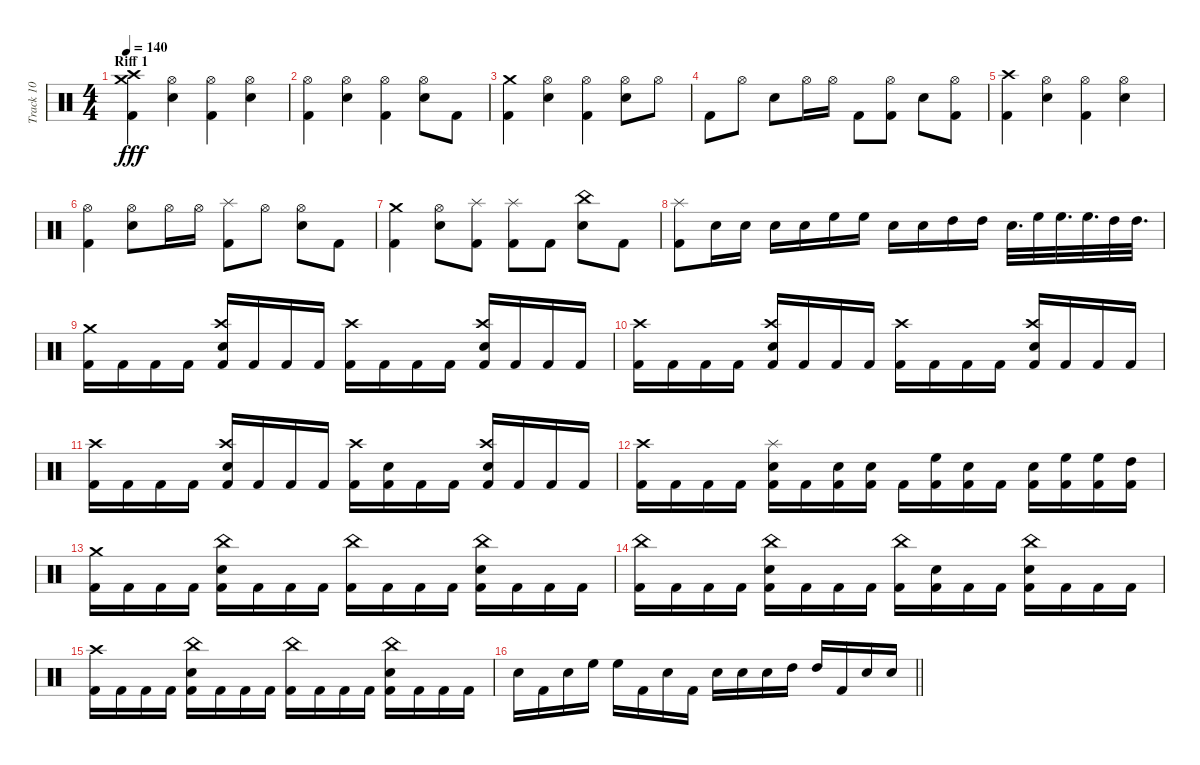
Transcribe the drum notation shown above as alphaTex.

\track ("Track 10" "Track 10") {instrument percussion}
\staff {score}
\articulation defaults
\ts (4 4)
\section ("" "Riff 1")
\tempo 140
\clef neutral
\ks c
("Kick (hit) 2" "Crash medium (hit)" "Crash high (hit)").4{dy fff} ("Hi-Hat (open)" "Snare (hit) 2").4 ("Kick (hit) 2" "Hi-Hat (open)").4 ("Hi-Hat (open)" "Snare (hit) 2").4 |
("Kick (hit) 2" "Hi-Hat (open)").4 ("Snare (hit) 2" "Hi-Hat (open)").4 ("Hi-Hat (open)" "Kick (hit) 2").4 ("Snare (hit) 2" "Hi-Hat (open)").8 "Kick (hit) 2".8 |
("Kick (hit) 2" "Crash medium (hit)").4 ("Hi-Hat (open)" "Snare (hit) 2").4 ("Hi-Hat (open)" "Kick (hit) 2").4 ("Snare (hit) 2" "Hi-Hat (open)").8 "Hi-Hat (open)".8 |
"Kick (hit) 2".8 "Hi-Hat (open)".8 "Snare (hit) 2".8 "Hi-Hat (open)".16 "Hi-Hat (open)".16 "Kick (hit) 2".8 ("Kick (hit) 2" "Hi-Hat (open)").8 "Snare (hit) 2".8 ("Hi-Hat (open)" "Kick (hit) 2").8 |
("Kick (hit) 2" "Crash high (hit)").4 ("Hi-Hat (open)" "Snare (hit) 2").4 ("Hi-Hat (open)" "Kick (hit) 2").4 ("Snare (hit) 2" "Hi-Hat (open)").4 |
("Hi-Hat (open)" "Kick (hit) 2").4 ("Hi-Hat (open)" "Snare (hit) 2").8 "Hi-Hat (open)".16 "Hi-Hat (open)".16 ("Kick (hit) 2" "Splash (hit)").8 "Hi-Hat (open)".8 ("Snare (hit) 2" "Hi-Hat (open)").8 "Kick (hit) 2".8 |
("Crash medium (hit)" "Kick (hit) 2").4 ("Hi-Hat (open)" "Snare (hit) 2").8 ("Splash (hit)" "Kick (hit) 2").8 ("Kick (hit) 2" "Splash (hit)").8 "Kick (hit) 2".8 ("Snare (hit) 2" "China (hit)").8 "Kick (hit) 2".8 |
("Splash (hit)" "Kick (hit) 2").8 "Snare (hit) 2".16 "Snare (hit) 2".16 "Snare (hit) 2".16 "Snare (hit) 2".16 "High Floor Tom (hit)".16 "High Floor Tom (hit)".16 "Snare (hit) 2".16 "Snare (hit) 2".16 "High Tom (hit)".16 "High Tom (hit)".16 "Snare (hit) 2".32{d} "High Floor Tom (hit)".32 "High Floor Tom (hit)".32{d} "High Floor Tom (hit)".32{d} "High Tom (hit)".32 "High Tom (hit)".32{d} |
("Kick (hit) 2" "Crash medium (hit)").16 "Kick (hit) 2".16 "Kick (hit) 2".16 "Kick (hit) 2".16 ("Kick (hit) 2" "Snare (hit) 2" "Crash high (hit)").16 "Kick (hit) 2".16 "Kick (hit) 2".16 "Kick (hit) 2".16 ("Kick (hit) 2" "Crash high (hit)").16 "Kick (hit) 2".16 "Kick (hit) 2".16 "Kick (hit) 2".16 ("Crash high (hit)" "Kick (hit) 2" "Snare (hit) 2").16 "Kick (hit) 2".16 "Kick (hit) 2".16 "Kick (hit) 2".16 |
("Crash high (hit)" "Kick (hit) 2").16 "Kick (hit) 2".16 "Kick (hit) 2".16 "Kick (hit) 2".16 ("Kick (hit) 2" "Snare (hit) 2" "Crash high (hit)").16 "Kick (hit) 2".16 "Kick (hit) 2".16 "Kick (hit) 2".16 ("Crash high (hit)" "Kick (hit) 2").16 "Kick (hit) 2".16 "Kick (hit) 2".16 "Kick (hit) 2".16 ("Crash high (hit)" "Kick (hit) 2" "Snare (hit) 2").16 "Kick (hit) 2".16 "Kick (hit) 2".16 "Kick (hit) 2".16 |
("Kick (hit) 2" "Crash high (hit)").16 "Kick (hit) 2".16 "Kick (hit) 2".16 "Kick (hit) 2".16 ("Snare (hit) 2" "Crash high (hit)" "Kick (hit) 2").16 "Kick (hit) 2".16 "Kick (hit) 2".16 "Kick (hit) 2".16 ("Crash high (hit)" "Kick (hit) 2").16 ("Snare (hit) 2" "Kick (hit) 2").16 "Kick (hit) 2".16 "Kick (hit) 2".16 ("Kick (hit) 2" "Snare (hit) 2" "Crash high (hit)").16 "Kick (hit) 2".16 "Kick (hit) 2".16 "Kick (hit) 2".16 |
("Kick (hit) 2" "Crash high (hit)").16 "Kick (hit) 2".16 "Kick (hit) 2".16 "Kick (hit) 2".16 ("Splash (hit)" "Snare (hit) 2" "Kick (hit) 2").16 "Kick (hit) 2".16 ("Kick (hit) 2" "Snare (hit) 2").16 ("Snare (hit) 2" "Kick (hit) 2").16 "Kick (hit) 2".16 ("Kick (hit) 2" "High Floor Tom (hit)").16 ("Snare (hit) 2" "Kick (hit) 2").16 "Kick (hit) 2".16 ("Snare (hit) 2" "Kick (hit) 2").16 ("Kick (hit) 2" "High Floor Tom (hit)").16 ("High Floor Tom (hit)" "Kick (hit) 2").16 ("Kick (hit) 2" "High Tom (hit)").16 |
("Kick (hit) 2" "Crash medium (hit)").16 "Kick (hit) 2".16 "Kick (hit) 2".16 "Kick (hit) 2".16 ("Kick (hit) 2" "China (hit)" "Snare (hit) 2").16 "Kick (hit) 2".16 "Kick (hit) 2".16 "Kick (hit) 2".16 ("Kick (hit) 2" "China (hit)").16 "Kick (hit) 2".16 "Kick (hit) 2".16 "Kick (hit) 2".16 ("Snare (hit) 2" "China (hit)" "Kick (hit) 2").16 "Kick (hit) 2".16 "Kick (hit) 2".16 "Kick (hit) 2".16 |
("Kick (hit) 2" "China (hit)").16 "Kick (hit) 2".16 "Kick (hit) 2".16 "Kick (hit) 2".16 ("Kick (hit) 2" "China (hit)" "Snare (hit) 2").16 "Kick (hit) 2".16 "Kick (hit) 2".16 "Kick (hit) 2".16 ("China (hit)" "Kick (hit) 2").16 ("Kick (hit) 2" "Snare (hit) 2").16 "Kick (hit) 2".16 "Kick (hit) 2".16 ("Kick (hit) 2" "China (hit)" "Snare (hit) 2").16 "Kick (hit) 2".16 "Kick (hit) 2".16 "Kick (hit) 2".16 |
("Kick (hit) 2" "Crash high (hit)").16 "Kick (hit) 2".16 "Kick (hit) 2".16 "Kick (hit) 2".16 ("China (hit)" "Kick (hit) 2" "Snare (hit) 2").16 "Kick (hit) 2".16 "Kick (hit) 2".16 "Kick (hit) 2".16 ("China (hit)" "Kick (hit) 2").16 "Kick (hit) 2".16 "Kick (hit) 2".16 "Kick (hit) 2".16 ("China (hit)" "Snare (hit) 2" "Kick (hit) 2").16 "Kick (hit) 2".16 "Kick (hit) 2".16 "Kick (hit) 2".16 |
\barLineRight lightlight "Snare (hit) 2".16 "Kick (hit) 2".16 "Snare (hit) 2".16 "High Floor Tom (hit)".16 "High Floor Tom (hit)".16 "Kick (hit) 2".16 "Snare (hit) 2".16 "Kick (hit) 2".16 "Snare (hit) 2".16 "Snare (hit) 2".16 "Snare (hit) 2".16 "High Tom (hit)".16 "High Tom (hit)".16 "Kick (hit) 2".16 "Snare (hit) 2".16 "Snare (hit) 2".16
